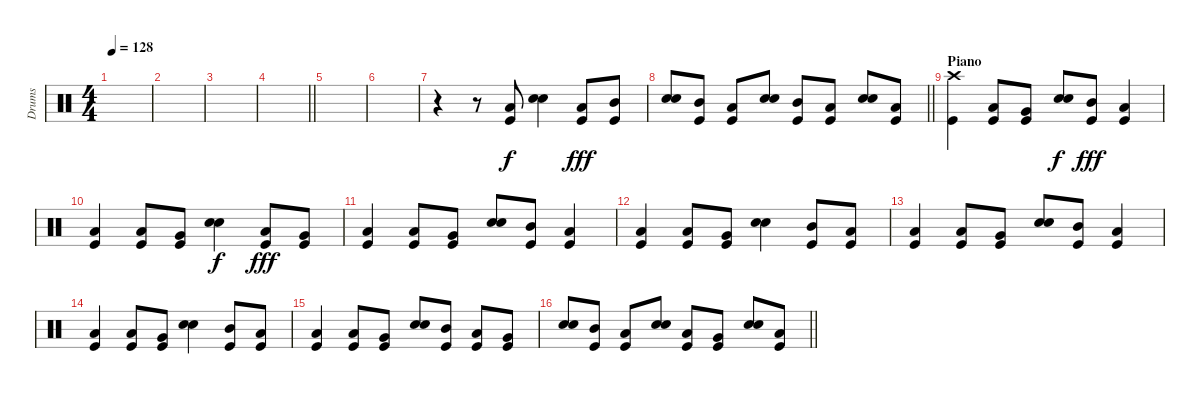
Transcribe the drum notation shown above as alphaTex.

\track ("Drums" "Drums") {instrument percussion}
\staff {score}
\articulation defaults
\ts (4 4)
\tempo 128
\clef neutral
\ks c
|
|
|
\barLineRight lightlight
|
|
|
r.4 r.8 ("Low Tom (hit)" "Kick (hit)").8 ("Snare (hit) 2" "Electric Snare (hit)").4{dy f} ("Low Tom (hit)" "Kick (hit)").8{dy fff} ("Mid Tom (hit)" "Kick (hit)").8 |
\barLineRight lightlight
("Snare (hit) 2" "Electric Snare (hit)").8 ("Mid Tom (hit)" "Kick (hit)").8 ("Low Tom (hit)" "Kick (hit)").8 ("Snare (hit) 2" "Electric Snare (hit)").8 ("Mid Tom (hit)" "Kick (hit)").8 ("Low Tom (hit)" "Kick (hit)").8 ("Snare (hit) 2" "Electric Snare (hit)").8 ("Low Tom (hit)" "Kick (hit)").8 |
\section ("" "Piano")
("Crash high (hit)" "Kick (hit)").4 ("Low Tom (hit)" "Kick (hit)").8 ("Very Low Tom (hit)" "Kick (hit)").8 ("Snare (hit) 2" "Electric Snare (hit)").8{dy f} ("Mid Tom (hit)" "Kick (hit)").8{dy fff} ("Low Tom (hit)" "Kick (hit)").4 |
("Low Tom (hit)" "Kick (hit)").4 ("Low Tom (hit)" "Kick (hit)").8 ("Very Low Tom (hit)" "Kick (hit)").8 ("Snare (hit) 2" "Electric Snare (hit)").4{dy f} ("Low Tom (hit)" "Kick (hit)").8{dy fff} ("Very Low Tom (hit)" "Kick (hit)").8 |
("Low Tom (hit)" "Kick (hit)").4 ("Low Tom (hit)" "Kick (hit)").8 ("Very Low Tom (hit)" "Kick (hit)").8 ("Snare (hit) 2" "Electric Snare (hit)").8 ("Mid Tom (hit)" "Kick (hit)").8 ("Low Tom (hit)" "Kick (hit)").4 |
("Low Tom (hit)" "Kick (hit)").4 ("Low Tom (hit)" "Kick (hit)").8 ("Very Low Tom (hit)" "Kick (hit)").8 ("Snare (hit) 2" "Electric Snare (hit)").4 ("Mid Tom (hit)" "Kick (hit)").8 ("Low Tom (hit)" "Kick (hit)").8 |
("Low Tom (hit)" "Kick (hit)").4 ("Low Tom (hit)" "Kick (hit)").8 ("Very Low Tom (hit)" "Kick (hit)").8 ("Snare (hit) 2" "Electric Snare (hit)").8 ("Mid Tom (hit)" "Kick (hit)").8 ("Low Tom (hit)" "Kick (hit)").4 |
("Low Tom (hit)" "Kick (hit)").4 ("Low Tom (hit)" "Kick (hit)").8 ("Very Low Tom (hit)" "Kick (hit)").8 ("Snare (hit) 2" "Electric Snare (hit)").4 ("Mid Tom (hit)" "Kick (hit)").8 ("Low Tom (hit)" "Kick (hit)").8 |
("Low Tom (hit)" "Kick (hit)").4 ("Low Tom (hit)" "Kick (hit)").8 ("Very Low Tom (hit)" "Kick (hit)").8 ("Snare (hit) 2" "Electric Snare (hit)").8 ("Mid Tom (hit)" "Kick (hit)").8 ("Low Tom (hit)" "Kick (hit)").8 ("Very Low Tom (hit)" "Kick (hit)").8 |
\barLineRight lightlight
("Snare (hit) 2" "Electric Snare (hit)").8 ("Mid Tom (hit)" "Kick (hit)").8 ("Low Tom (hit)" "Kick (hit)").8 ("Snare (hit) 2" "Electric Snare (hit)").8 ("Low Tom (hit)" "Kick (hit)").8 ("Very Low Tom (hit)" "Kick (hit)").8 ("Snare (hit) 2" "Electric Snare (hit)").8 ("Low Tom (hit)" "Kick (hit)").8
